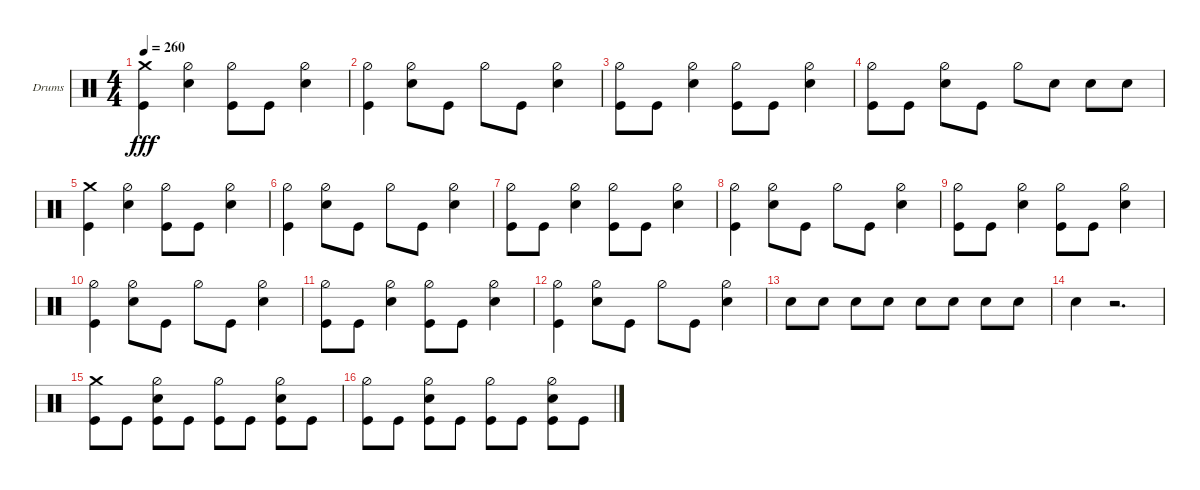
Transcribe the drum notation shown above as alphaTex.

\defaultSystemsLayout 4
\bracketExtendMode groupsimilarinstruments
\firstSystemTrackNameOrientation horizontal
\otherSystemsTrackNameOrientation horizontal
\track ("Stefan Schwarzmann" "Drums") {instrument percussion}
\staff {score}
\articulation defaults
\ts (4 4)
\tempo 260
\clef neutral
\ks c
("Kick (hit)" "Crash medium (hit)").4{dy fff} ("Snare (hit) 2" "Hi-Hat (half)").4 ("Kick (hit)" "Hi-Hat (half)").8 "Kick (hit)".8 ("Snare (hit) 2" "Hi-Hat (half)").4 |
("Kick (hit)" "Hi-Hat (half)").4 ("Snare (hit) 2" "Hi-Hat (half)").8 "Kick (hit)".8 "Hi-Hat (half)".8 "Kick (hit)".8 ("Snare (hit) 2" "Hi-Hat (half)").4 |
("Kick (hit)" "Hi-Hat (half)").8 "Kick (hit)".8 ("Snare (hit) 2" "Hi-Hat (half)").4 ("Kick (hit)" "Hi-Hat (half)").8 "Kick (hit)".8 ("Snare (hit) 2" "Hi-Hat (half)").4 |
("Kick (hit)" "Hi-Hat (half)").8 "Kick (hit)".8 ("Snare (hit) 2" "Hi-Hat (half)").8 "Kick (hit)".8 "Hi-Hat (half)".8 "Snare (hit) 2".8 "Snare (hit) 2".8 "Snare (hit) 2".8 |
("Kick (hit)" "Crash medium (hit)").4 ("Snare (hit) 2" "Hi-Hat (half)").4 ("Kick (hit)" "Hi-Hat (half)").8 "Kick (hit)".8 ("Snare (hit) 2" "Hi-Hat (half)").4 |
("Kick (hit)" "Hi-Hat (half)").4 ("Snare (hit) 2" "Hi-Hat (half)").8 "Kick (hit)".8 "Hi-Hat (half)".8 "Kick (hit)".8 ("Snare (hit) 2" "Hi-Hat (half)").4 |
("Kick (hit)" "Hi-Hat (half)").8 "Kick (hit)".8 ("Snare (hit) 2" "Hi-Hat (half)").4 ("Kick (hit)" "Hi-Hat (half)").8 "Kick (hit)".8 ("Snare (hit) 2" "Hi-Hat (half)").4 |
("Kick (hit)" "Hi-Hat (half)").4 ("Snare (hit) 2" "Hi-Hat (half)").8 "Kick (hit)".8 "Hi-Hat (half)".8 "Kick (hit)".8 ("Snare (hit) 2" "Hi-Hat (half)").4 |
("Kick (hit)" "Hi-Hat (half)").8 "Kick (hit)".8 ("Snare (hit) 2" "Hi-Hat (half)").4 ("Kick (hit)" "Hi-Hat (half)").8 "Kick (hit)".8 ("Snare (hit) 2" "Hi-Hat (half)").4 |
("Kick (hit)" "Hi-Hat (half)").4 ("Snare (hit) 2" "Hi-Hat (half)").8 "Kick (hit)".8 "Hi-Hat (half)".8 "Kick (hit)".8 ("Snare (hit) 2" "Hi-Hat (half)").4 |
("Kick (hit)" "Hi-Hat (half)").8 "Kick (hit)".8 ("Snare (hit) 2" "Hi-Hat (half)").4 ("Kick (hit)" "Hi-Hat (half)").8 "Kick (hit)".8 ("Snare (hit) 2" "Hi-Hat (half)").4 |
("Kick (hit)" "Hi-Hat (half)").4 ("Snare (hit) 2" "Hi-Hat (half)").8 "Kick (hit)".8 "Hi-Hat (half)".8 "Kick (hit)".8 ("Snare (hit) 2" "Hi-Hat (half)").4 |
"Snare (hit) 2".8 "Snare (hit) 2".8 "Snare (hit) 2".8 "Snare (hit) 2".8 "Snare (hit) 2".8 "Snare (hit) 2".8 "Snare (hit) 2".8 "Snare (hit) 2".8 |
"Snare (hit) 2".4 r.2{d} |
("Kick (hit)" "Crash medium (hit)").8 "Kick (hit)".8 ("Kick (hit)" "Snare (hit) 2" "Hi-Hat (half)").8 "Kick (hit)".8 ("Kick (hit)" "Hi-Hat (half)").8 "Kick (hit)".8 ("Kick (hit)" "Snare (hit) 2" "Hi-Hat (half)").8 "Kick (hit)".8 |
("Kick (hit)" "Hi-Hat (half)").8 "Kick (hit)".8 ("Kick (hit)" "Snare (hit) 2" "Hi-Hat (half)").8 "Kick (hit)".8 ("Kick (hit)" "Hi-Hat (half)").8 "Kick (hit)".8 ("Kick (hit)" "Snare (hit) 2" "Hi-Hat (half)").8 "Kick (hit)".8
